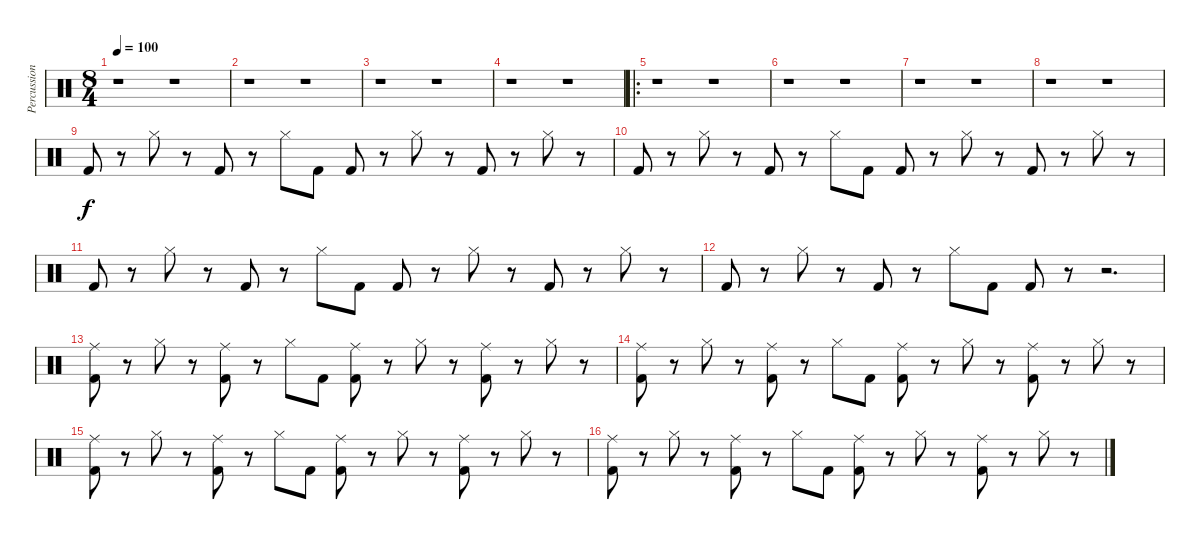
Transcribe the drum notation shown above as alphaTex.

\track ("Percussion" "Percussion") {instrument percussion}
\staff {score}
\articulation defaults
\ts (8 4)
\tempo 100
\clef neutral
\ks c
r.1{dy f} r.1 |
r.1 r.1 |
r.1 r.1 |
r.1 r.1 |
\ro
r.1 r.1 |
r.1 r.1 |
r.1 r.1 |
r.1 r.1 |
"Kick (hit) 2".8 r.8 "Hi-Hat (closed)".8 r.8 "Kick (hit) 2".8 r.8 "Hi-Hat (closed)".8 "Kick (hit) 2".8 "Kick (hit) 2".8 r.8 "Hi-Hat (closed)".8 r.8 "Kick (hit) 2".8 r.8 "Hi-Hat (closed)".8 r.8 |
"Kick (hit) 2".8 r.8 "Hi-Hat (closed)".8 r.8 "Kick (hit) 2".8 r.8 "Hi-Hat (closed)".8 "Kick (hit) 2".8 "Kick (hit) 2".8 r.8 "Hi-Hat (closed)".8 r.8 "Kick (hit) 2".8 r.8 "Hi-Hat (closed)".8 r.8 |
"Kick (hit) 2".8 r.8 "Hi-Hat (closed)".8 r.8 "Kick (hit) 2".8 r.8 "Hi-Hat (closed)".8 "Kick (hit) 2".8 "Kick (hit) 2".8 r.8 "Hi-Hat (closed)".8 r.8 "Kick (hit) 2".8 r.8 "Hi-Hat (closed)".8 r.8 |
"Kick (hit) 2".8 r.8 "Hi-Hat (closed)".8 r.8 "Kick (hit) 2".8 r.8 "Hi-Hat (closed)".8 "Kick (hit) 2".8 "Kick (hit) 2".8 r.8 r.2{d} |
("Ride (middle)" "Kick (hit) 2").8 r.8 "Hi-Hat (closed)".8 r.8 ("Ride (middle)" "Kick (hit) 2").8 r.8 "Hi-Hat (closed)".8 "Kick (hit) 2".8 ("Ride (middle)" "Kick (hit) 2").8 r.8 "Hi-Hat (closed)".8 r.8 ("Ride (middle)" "Kick (hit) 2").8 r.8 "Hi-Hat (closed)".8 r.8 |
("Ride (middle)" "Kick (hit) 2").8 r.8 "Hi-Hat (closed)".8 r.8 ("Ride (middle)" "Kick (hit) 2").8 r.8 "Hi-Hat (closed)".8 "Kick (hit) 2".8 ("Ride (middle)" "Kick (hit) 2").8 r.8 "Hi-Hat (closed)".8 r.8 ("Ride (middle)" "Kick (hit) 2").8 r.8 "Hi-Hat (closed)".8 r.8 |
("Ride (middle)" "Kick (hit) 2").8 r.8 "Hi-Hat (closed)".8 r.8 ("Ride (middle)" "Kick (hit) 2").8 r.8 "Hi-Hat (closed)".8 "Kick (hit) 2".8 ("Ride (middle)" "Kick (hit) 2").8 r.8 "Hi-Hat (closed)".8 r.8 ("Ride (middle)" "Kick (hit) 2").8 r.8 "Hi-Hat (closed)".8 r.8 |
("Ride (middle)" "Kick (hit) 2").8 r.8 "Hi-Hat (closed)".8 r.8 ("Ride (middle)" "Kick (hit) 2").8 r.8 "Hi-Hat (closed)".8 "Kick (hit) 2".8 ("Ride (middle)" "Kick (hit) 2").8 r.8 "Hi-Hat (closed)".8 r.8 ("Ride (middle)" "Kick (hit) 2").8 r.8 "Hi-Hat (closed)".8 r.8
